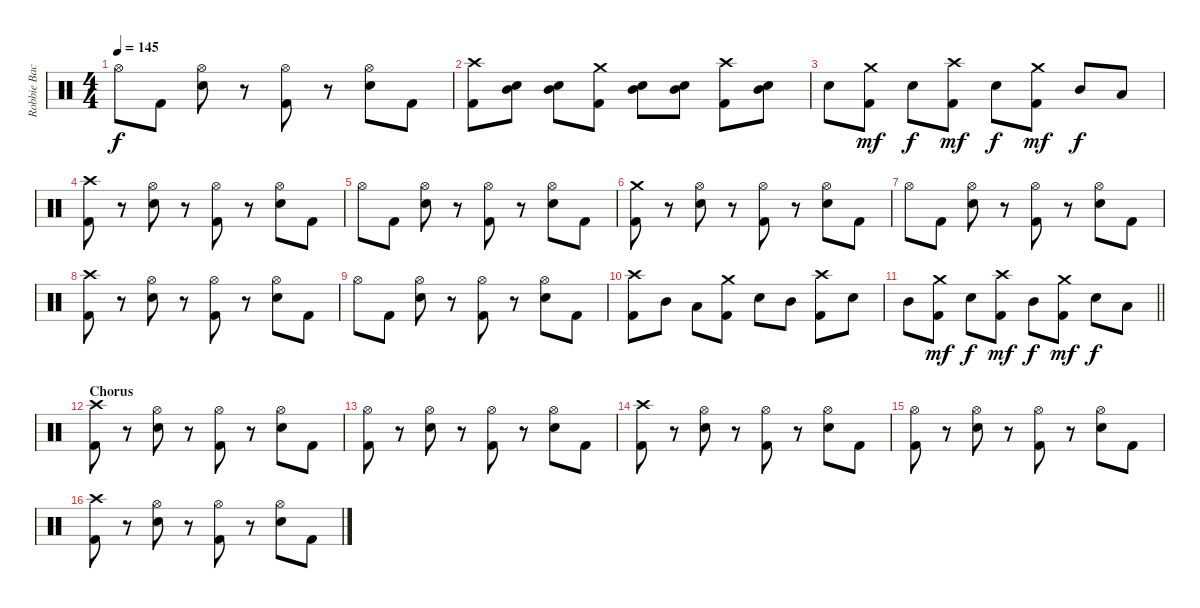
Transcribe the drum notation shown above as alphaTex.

\track ("Robbie Bachman" "Robbie Bac") {instrument percussion}
\staff {score}
\articulation defaults
\ts (4 4)
\tempo 145
\clef neutral
\ks c "Hi-Hat (open)".8{dy f} "Kick (hit) 2".8
("Hi-Hat (open)" "Snare (hit) 2").8 r.8 ("Hi-Hat (open)" "Kick (hit) 2").8 r.8 ("Hi-Hat (open)" "Snare (hit) 2").8 "Kick (hit) 2".8 |
("Crash high (hit)" "Kick (hit) 2").8 ("Mid Tom (hit)" "Snare (hit) 2").8 ("Mid Tom (hit)" "Snare (hit) 2").8 ("Crash medium (hit)" "Kick (hit) 2").8 ("Mid Tom (hit)" "Snare (hit) 2").8 ("Mid Tom (hit)" "Snare (hit) 2").8 ("Crash high (hit)" "Kick (hit) 2").8 ("Mid Tom (hit)" "Snare (hit) 2").8 |
"Snare (hit) 2".8 ("Crash medium (hit)" "Kick (hit) 2").8{dy mf} "Snare (hit) 2".8{dy f} ("Crash high (hit)" "Kick (hit) 2").8{dy mf} "Snare (hit) 2".8{dy f} ("Crash medium (hit)" "Kick (hit) 2").8{dy mf} "Mid Tom (hit)".8{dy f} "Low Tom (hit)".8 |
("Crash high (hit)" "Kick (hit) 2").8 r.8 ("Hi-Hat (open)" "Snare (hit) 2").8 r.8 ("Hi-Hat (open)" "Kick (hit) 2").8 r.8 ("Hi-Hat (open)" "Snare (hit) 2").8 "Kick (hit) 2".8 |
"Hi-Hat (open)".8 "Kick (hit) 2".8 ("Hi-Hat (open)" "Snare (hit) 2").8 r.8 ("Hi-Hat (open)" "Kick (hit) 2").8 r.8 ("Hi-Hat (open)" "Snare (hit) 2").8 "Kick (hit) 2".8 |
("Crash medium (hit)" "Kick (hit) 2").8 r.8 ("Hi-Hat (open)" "Snare (hit) 2").8 r.8 ("Hi-Hat (open)" "Kick (hit) 2").8 r.8 ("Hi-Hat (open)" "Snare (hit) 2").8 "Kick (hit) 2".8 |
"Hi-Hat (open)".8 "Kick (hit) 2".8 ("Hi-Hat (open)" "Snare (hit) 2").8 r.8 ("Hi-Hat (open)" "Kick (hit) 2").8 r.8 ("Hi-Hat (open)" "Snare (hit) 2").8 "Kick (hit) 2".8 |
("Crash high (hit)" "Kick (hit) 2").8 r.8 ("Hi-Hat (open)" "Snare (hit) 2").8 r.8 ("Hi-Hat (open)" "Kick (hit) 2").8 r.8 ("Hi-Hat (open)" "Snare (hit) 2").8 "Kick (hit) 2".8 |
"Hi-Hat (open)".8 "Kick (hit) 2".8 ("Hi-Hat (open)" "Snare (hit) 2").8 r.8 ("Hi-Hat (open)" "Kick (hit) 2").8 r.8 ("Hi-Hat (open)" "Snare (hit) 2").8 "Kick (hit) 2".8 |
("Crash high (hit)" "Kick (hit) 2").8 "Mid Tom (hit)".8 "Low Tom (hit)".8 ("Crash medium (hit)" "Kick (hit) 2").8 "Snare (hit) 2".8 "Mid Tom (hit)".8 ("Crash high (hit)" "Kick (hit) 2").8 "Snare (hit) 2".8 |
\barLineRight lightlight "Mid Tom (hit)".8
("Crash medium (hit)" "Kick (hit) 2").8{dy mf} "Snare (hit) 2".8{dy f} ("Crash high (hit)" "Kick (hit) 2").8{dy mf} "Mid Tom (hit)".8{dy f} ("Crash medium (hit)" "Kick (hit) 2").8{dy mf} "Snare (hit) 2".8{dy f} "Low Tom (hit)".8 |
\section ("" "Chorus")
("Crash high (hit)" "Kick (hit) 2").8 r.8 ("Hi-Hat (open)" "Snare (hit) 2").8 r.8 ("Hi-Hat (open)" "Kick (hit) 2").8 r.8 ("Hi-Hat (open)" "Snare (hit) 2").8 "Kick (hit) 2".8 |
("Hi-Hat (open)" "Kick (hit) 2").8 r.8 ("Hi-Hat (open)" "Snare (hit) 2").8 r.8 ("Hi-Hat (open)" "Kick (hit) 2").8 r.8 ("Hi-Hat (open)" "Snare (hit) 2").8 "Kick (hit) 2".8 |
("Crash high (hit)" "Kick (hit) 2").8 r.8 ("Hi-Hat (open)" "Snare (hit) 2").8 r.8 ("Hi-Hat (open)" "Kick (hit) 2").8 r.8 ("Hi-Hat (open)" "Snare (hit) 2").8 "Kick (hit) 2".8 |
("Hi-Hat (open)" "Kick (hit) 2").8 r.8 ("Hi-Hat (open)" "Snare (hit) 2").8 r.8 ("Hi-Hat (open)" "Kick (hit) 2").8 r.8 ("Hi-Hat (open)" "Snare (hit) 2").8 "Kick (hit) 2".8 |
("Crash high (hit)" "Kick (hit) 2").8 r.8 ("Hi-Hat (open)" "Snare (hit) 2").8 r.8 ("Hi-Hat (open)" "Kick (hit) 2").8 r.8 ("Hi-Hat (open)" "Snare (hit) 2").8 "Kick (hit) 2".8
